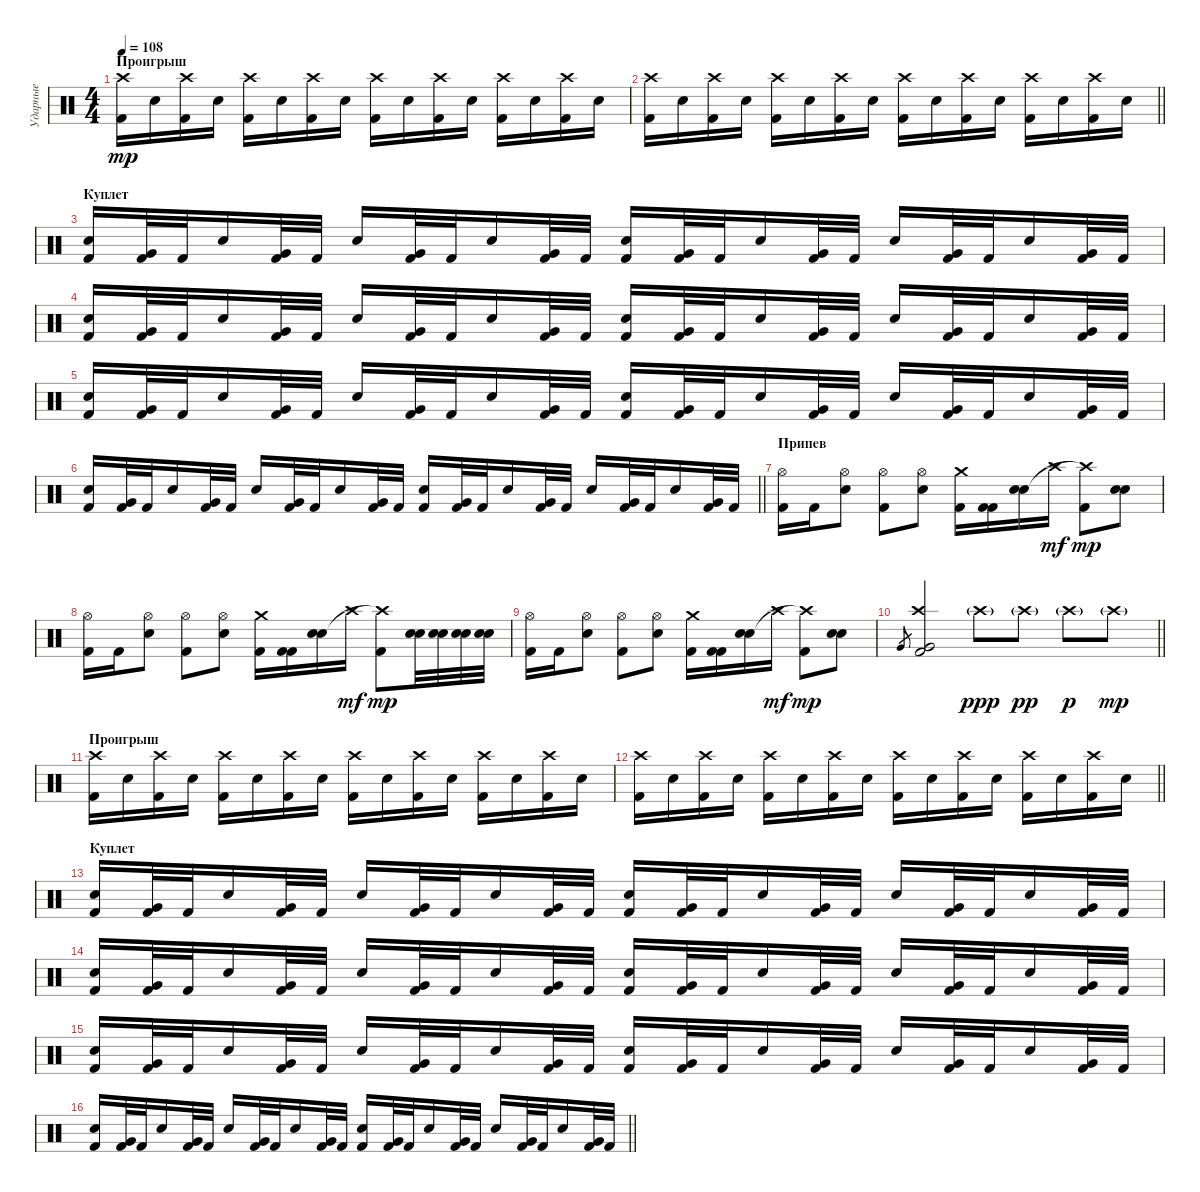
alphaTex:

\track ("Ударные" "Ударные") {instrument percussion}
\staff {score}
\articulation defaults
\ts (4 4)
\section ("" "Проигрыш")
\tempo 108
\clef neutral
\ks c
("Kick (hit) 2" "Crash high (hit)").16{dy mp} "Snare (hit) 2".16 ("Kick (hit) 2" "Crash high (hit)").16 "Snare (hit) 2".16 ("Kick (hit) 2" "Crash high (hit)").16 "Snare (hit) 2".16 ("Kick (hit) 2" "Crash high (hit)").16 "Snare (hit) 2".16 ("Kick (hit) 2" "Crash high (hit)").16 "Snare (hit) 2".16 ("Kick (hit) 2" "Crash high (hit)").16 "Snare (hit) 2".16 ("Kick (hit) 2" "Crash high (hit)").16 "Snare (hit) 2".16 ("Kick (hit) 2" "Crash high (hit)").16 "Snare (hit) 2".16 |
\barLineRight lightlight
("Kick (hit) 2" "Crash high (hit)").16 "Snare (hit) 2".16 ("Kick (hit) 2" "Crash high (hit)").16 "Snare (hit) 2".16 ("Kick (hit) 2" "Crash high (hit)").16 "Snare (hit) 2".16 ("Kick (hit) 2" "Crash high (hit)").16 "Snare (hit) 2".16 ("Kick (hit) 2" "Crash high (hit)").16 "Snare (hit) 2".16 ("Kick (hit) 2" "Crash high (hit)").16 "Snare (hit) 2".16 ("Kick (hit) 2" "Crash high (hit)").16 "Snare (hit) 2".16 ("Kick (hit) 2" "Crash high (hit)").16 "Snare (hit) 2".16 |
\section ("" "Куплет")
("Kick (hit) 2" "Snare (hit) 2").16 ("Kick (hit) 2" "Very Low Tom (hit)").32 "Kick (hit) 2".32 "Snare (hit) 2".16 ("Kick (hit) 2" "Very Low Tom (hit)").32 "Kick (hit) 2".32 "Snare (hit) 2".16 ("Kick (hit) 2" "Very Low Tom (hit)").32 "Kick (hit) 2".32 "Snare (hit) 2".16 ("Kick (hit) 2" "Very Low Tom (hit)").32 "Kick (hit) 2".32 ("Kick (hit) 2" "Snare (hit) 2").16 ("Kick (hit) 2" "Very Low Tom (hit)").32 "Kick (hit) 2".32 "Snare (hit) 2".16 ("Kick (hit) 2" "Very Low Tom (hit)").32 "Kick (hit) 2".32 "Snare (hit) 2".16 ("Kick (hit) 2" "Very Low Tom (hit)").32 "Kick (hit) 2".32 "Snare (hit) 2".16 ("Kick (hit) 2" "Very Low Tom (hit)").32 "Kick (hit) 2".32 |
("Kick (hit) 2" "Snare (hit) 2").16 ("Kick (hit) 2" "Very Low Tom (hit)").32 "Kick (hit) 2".32 "Snare (hit) 2".16 ("Kick (hit) 2" "Very Low Tom (hit)").32 "Kick (hit) 2".32 "Snare (hit) 2".16 ("Kick (hit) 2" "Very Low Tom (hit)").32 "Kick (hit) 2".32 "Snare (hit) 2".16 ("Kick (hit) 2" "Very Low Tom (hit)").32 "Kick (hit) 2".32 ("Kick (hit) 2" "Snare (hit) 2").16 ("Kick (hit) 2" "Very Low Tom (hit)").32 "Kick (hit) 2".32 "Snare (hit) 2".16 ("Kick (hit) 2" "Very Low Tom (hit)").32 "Kick (hit) 2".32 "Snare (hit) 2".16 ("Kick (hit) 2" "Very Low Tom (hit)").32 "Kick (hit) 2".32 "Snare (hit) 2".16 ("Kick (hit) 2" "Very Low Tom (hit)").32 "Kick (hit) 2".32 |
("Kick (hit) 2" "Snare (hit) 2").16 ("Kick (hit) 2" "Very Low Tom (hit)").32 "Kick (hit) 2".32 "Snare (hit) 2".16 ("Kick (hit) 2" "Very Low Tom (hit)").32 "Kick (hit) 2".32 "Snare (hit) 2".16 ("Kick (hit) 2" "Very Low Tom (hit)").32 "Kick (hit) 2".32 "Snare (hit) 2".16 ("Kick (hit) 2" "Very Low Tom (hit)").32 "Kick (hit) 2".32 ("Kick (hit) 2" "Snare (hit) 2").16 ("Kick (hit) 2" "Very Low Tom (hit)").32 "Kick (hit) 2".32 "Snare (hit) 2".16 ("Kick (hit) 2" "Very Low Tom (hit)").32 "Kick (hit) 2".32 "Snare (hit) 2".16 ("Kick (hit) 2" "Very Low Tom (hit)").32 "Kick (hit) 2".32 "Snare (hit) 2".16 ("Kick (hit) 2" "Very Low Tom (hit)").32 "Kick (hit) 2".32 |
\barLineRight lightlight
("Kick (hit) 2" "Snare (hit) 2").16 ("Kick (hit) 2" "Very Low Tom (hit)").32 "Kick (hit) 2".32 "Snare (hit) 2".16 ("Kick (hit) 2" "Very Low Tom (hit)").32 "Kick (hit) 2".32 "Snare (hit) 2".16 ("Kick (hit) 2" "Very Low Tom (hit)").32 "Kick (hit) 2".32 "Snare (hit) 2".16 ("Kick (hit) 2" "Very Low Tom (hit)").32 "Kick (hit) 2".32 ("Kick (hit) 2" "Snare (hit) 2").16 ("Kick (hit) 2" "Very Low Tom (hit)").32 "Kick (hit) 2".32 "Snare (hit) 2".16 ("Kick (hit) 2" "Very Low Tom (hit)").32 "Kick (hit) 2".32 "Snare (hit) 2".16 ("Kick (hit) 2" "Very Low Tom (hit)").32 "Kick (hit) 2".32 "Snare (hit) 2".16 ("Kick (hit) 2" "Very Low Tom (hit)").32 "Kick (hit) 2".32 |
\section ("" "Припев")
("Kick (hit) 2" "Hi-Hat (open)").16 "Kick (hit) 2".16 ("Snare (hit) 2" "Hi-Hat (open)").8 ("Kick (hit) 2" "Hi-Hat (open)").8 ("Snare (hit) 2" "Hi-Hat (open)").8 ("Kick (hit) 2" "Crash medium (hit)").16 ("Kick (hit) 2" "Kick (hit) 2").16 ("Snare (hit) 2" "Snare (hit) 2").16 "Crash high (hit)".16{dy mf} ("Kick (hit) 2" "Crash high (hit)"{t}).8{dy mp} ("Snare (hit) 2" "Snare (hit) 2").8 |
("Kick (hit) 2" "Hi-Hat (open)").16 "Kick (hit) 2".16 ("Snare (hit) 2" "Hi-Hat (open)").8 ("Kick (hit) 2" "Hi-Hat (open)").8 ("Snare (hit) 2" "Hi-Hat (open)").8 ("Kick (hit) 2" "Crash medium (hit)").16 ("Kick (hit) 2" "Kick (hit) 2").16 ("Snare (hit) 2" "Snare (hit) 2").16 "Crash high (hit)".16{dy mf} ("Kick (hit) 2" "Crash high (hit)"{t}).8{dy mp} ("Snare (hit) 2" "Snare (hit) 2").32 ("Snare (hit) 2" "Snare (hit) 2").32 ("Snare (hit) 2" "Snare (hit) 2").32 ("Snare (hit) 2" "Snare (hit) 2").32 |
("Kick (hit) 2" "Hi-Hat (open)").16 "Kick (hit) 2".16 ("Snare (hit) 2" "Hi-Hat (open)").8 ("Kick (hit) 2" "Hi-Hat (open)").8 ("Snare (hit) 2" "Hi-Hat (open)").8 ("Kick (hit) 2" "Crash medium (hit)").16 ("Kick (hit) 2" "Kick (hit) 2").16 ("Snare (hit) 2" "Snare (hit) 2").16 "Crash high (hit)".16{dy mf} ("Kick (hit) 2" "Crash high (hit)"{t}).8{dy mp} ("Snare (hit) 2" "Snare (hit) 2").8 |
\barLineRight lightlight "Very Low Tom (hit)".8{gr}
("Kick (hit) 2" "Very Low Tom (hit)" "Crash high (hit)").2 "Crash high (hit)"{g}.8{dy ppp} "Crash high (hit)"{g}.8{dy pp} "Crash high (hit)"{g}.8{dy p} "Crash high (hit)"{g}.8{dy mp} |
\section ("" "Проигрыш")
("Kick (hit) 2" "Crash high (hit)").16 "Snare (hit) 2".16 ("Kick (hit) 2" "Crash high (hit)").16 "Snare (hit) 2".16 ("Kick (hit) 2" "Crash high (hit)").16 "Snare (hit) 2".16 ("Kick (hit) 2" "Crash high (hit)").16 "Snare (hit) 2".16 ("Kick (hit) 2" "Crash high (hit)").16 "Snare (hit) 2".16 ("Kick (hit) 2" "Crash high (hit)").16 "Snare (hit) 2".16 ("Kick (hit) 2" "Crash high (hit)").16 "Snare (hit) 2".16 ("Kick (hit) 2" "Crash high (hit)").16 "Snare (hit) 2".16 |
\barLineRight lightlight
("Kick (hit) 2" "Crash high (hit)").16 "Snare (hit) 2".16 ("Kick (hit) 2" "Crash high (hit)").16 "Snare (hit) 2".16 ("Kick (hit) 2" "Crash high (hit)").16 "Snare (hit) 2".16 ("Kick (hit) 2" "Crash high (hit)").16 "Snare (hit) 2".16 ("Kick (hit) 2" "Crash high (hit)").16 "Snare (hit) 2".16 ("Kick (hit) 2" "Crash high (hit)").16 "Snare (hit) 2".16 ("Kick (hit) 2" "Crash high (hit)").16 "Snare (hit) 2".16 ("Kick (hit) 2" "Crash high (hit)").16 "Snare (hit) 2".16 |
\section ("" "Куплет")
("Kick (hit) 2" "Snare (hit) 2").16 ("Kick (hit) 2" "Very Low Tom (hit)").32 "Kick (hit) 2".32 "Snare (hit) 2".16 ("Kick (hit) 2" "Very Low Tom (hit)").32 "Kick (hit) 2".32 "Snare (hit) 2".16 ("Kick (hit) 2" "Very Low Tom (hit)").32 "Kick (hit) 2".32 "Snare (hit) 2".16 ("Kick (hit) 2" "Very Low Tom (hit)").32 "Kick (hit) 2".32 ("Kick (hit) 2" "Snare (hit) 2").16 ("Kick (hit) 2" "Very Low Tom (hit)").32 "Kick (hit) 2".32 "Snare (hit) 2".16 ("Kick (hit) 2" "Very Low Tom (hit)").32 "Kick (hit) 2".32 "Snare (hit) 2".16 ("Kick (hit) 2" "Very Low Tom (hit)").32 "Kick (hit) 2".32 "Snare (hit) 2".16 ("Kick (hit) 2" "Very Low Tom (hit)").32 "Kick (hit) 2".32 |
("Kick (hit) 2" "Snare (hit) 2").16 ("Kick (hit) 2" "Very Low Tom (hit)").32 "Kick (hit) 2".32 "Snare (hit) 2".16 ("Kick (hit) 2" "Very Low Tom (hit)").32 "Kick (hit) 2".32 "Snare (hit) 2".16 ("Kick (hit) 2" "Very Low Tom (hit)").32 "Kick (hit) 2".32 "Snare (hit) 2".16 ("Kick (hit) 2" "Very Low Tom (hit)").32 "Kick (hit) 2".32 ("Kick (hit) 2" "Snare (hit) 2").16 ("Kick (hit) 2" "Very Low Tom (hit)").32 "Kick (hit) 2".32 "Snare (hit) 2".16 ("Kick (hit) 2" "Very Low Tom (hit)").32 "Kick (hit) 2".32 "Snare (hit) 2".16 ("Kick (hit) 2" "Very Low Tom (hit)").32 "Kick (hit) 2".32 "Snare (hit) 2".16 ("Kick (hit) 2" "Very Low Tom (hit)").32 "Kick (hit) 2".32 |
("Kick (hit) 2" "Snare (hit) 2").16 ("Kick (hit) 2" "Very Low Tom (hit)").32 "Kick (hit) 2".32 "Snare (hit) 2".16 ("Kick (hit) 2" "Very Low Tom (hit)").32 "Kick (hit) 2".32 "Snare (hit) 2".16 ("Kick (hit) 2" "Very Low Tom (hit)").32 "Kick (hit) 2".32 "Snare (hit) 2".16 ("Kick (hit) 2" "Very Low Tom (hit)").32 "Kick (hit) 2".32 ("Kick (hit) 2" "Snare (hit) 2").16 ("Kick (hit) 2" "Very Low Tom (hit)").32 "Kick (hit) 2".32 "Snare (hit) 2".16 ("Kick (hit) 2" "Very Low Tom (hit)").32 "Kick (hit) 2".32 "Snare (hit) 2".16 ("Kick (hit) 2" "Very Low Tom (hit)").32 "Kick (hit) 2".32 "Snare (hit) 2".16 ("Kick (hit) 2" "Very Low Tom (hit)").32 "Kick (hit) 2".32 |
\barLineRight lightlight
("Kick (hit) 2" "Snare (hit) 2").16 ("Kick (hit) 2" "Very Low Tom (hit)").32 "Kick (hit) 2".32 "Snare (hit) 2".16 ("Kick (hit) 2" "Very Low Tom (hit)").32 "Kick (hit) 2".32 "Snare (hit) 2".16 ("Kick (hit) 2" "Very Low Tom (hit)").32 "Kick (hit) 2".32 "Snare (hit) 2".16 ("Kick (hit) 2" "Very Low Tom (hit)").32 "Kick (hit) 2".32 ("Kick (hit) 2" "Snare (hit) 2").16 ("Kick (hit) 2" "Very Low Tom (hit)").32 "Kick (hit) 2".32 "Snare (hit) 2".16 ("Kick (hit) 2" "Very Low Tom (hit)").32 "Kick (hit) 2".32 "Snare (hit) 2".16 ("Kick (hit) 2" "Very Low Tom (hit)").32 "Kick (hit) 2".32 "Snare (hit) 2".16 ("Kick (hit) 2" "Very Low Tom (hit)").32 "Kick (hit) 2".32
